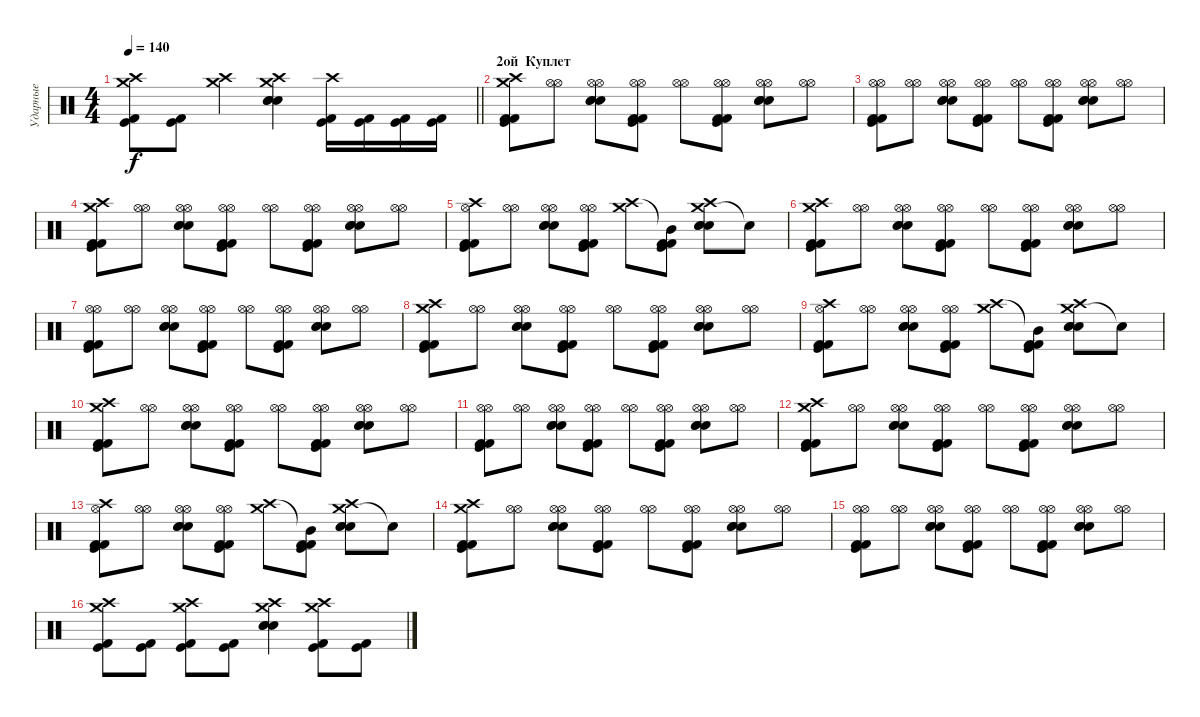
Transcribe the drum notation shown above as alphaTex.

\track ("Ударные" "Ударные") {instrument percussion}
\staff {score}
\articulation defaults
\ts (4 4)
\tempo 140
\clef neutral
\barLineRight lightlight
\ks c
("Crash high (hit)" "Crash medium (hit)" "Kick (hit)" "Kick (hit) 2").8{dy f} ("Kick (hit)" "Kick (hit) 2").8 ("Crash high (hit)" "Crash medium (hit)").4 ("Crash high (hit)" "Crash medium (hit)" "Electric Snare (hit)" "Snare (hit) 2" "Electric Snare (hit)").4 ("Crash high (hit)" "Kick (hit)" "Kick (hit) 2").16 ("Kick (hit)" "Kick (hit) 2").16 ("Kick (hit)" "Kick (hit) 2").16 ("Kick (hit)" "Kick (hit) 2").16 |
\section ("" "2ой  Куплет")
("Crash high (hit)" "Crash medium (hit)" "Kick (hit) 2" "Kick (hit)" "Kick (hit) 2").8 ("Hi-Hat (open)" "Hi-Hat (open)").8 ("Hi-Hat (open)" "Hi-Hat (open)" "Electric Snare (hit)" "Snare (hit) 2" "Electric Snare (hit)").8 ("Hi-Hat (open)" "Hi-Hat (open)" "Kick (hit) 2" "Kick (hit)" "Kick (hit) 2").8 ("Hi-Hat (open)" "Hi-Hat (open)").8 ("Hi-Hat (open)" "Hi-Hat (open)" "Kick (hit) 2" "Kick (hit)" "Kick (hit) 2").8 ("Hi-Hat (open)" "Hi-Hat (open)" "Electric Snare (hit)" "Snare (hit) 2" "Electric Snare (hit)").8 ("Hi-Hat (open)" "Hi-Hat (open)").8 |
("Hi-Hat (open)" "Hi-Hat (open)" "Kick (hit) 2" "Kick (hit)" "Kick (hit) 2").8 ("Hi-Hat (open)" "Hi-Hat (open)").8 ("Hi-Hat (open)" "Hi-Hat (open)" "Electric Snare (hit)" "Snare (hit) 2" "Electric Snare (hit)").8 ("Hi-Hat (open)" "Hi-Hat (open)" "Kick (hit) 2" "Kick (hit)" "Kick (hit) 2").8 ("Hi-Hat (open)" "Hi-Hat (open)").8 ("Hi-Hat (open)" "Hi-Hat (open)" "Kick (hit) 2" "Kick (hit)" "Kick (hit) 2").8 ("Hi-Hat (open)" "Hi-Hat (open)" "Electric Snare (hit)" "Snare (hit) 2" "Electric Snare (hit)").8 ("Hi-Hat (open)" "Hi-Hat (open)").8 |
("Crash high (hit)" "Crash medium (hit)" "Kick (hit) 2" "Kick (hit)" "Kick (hit) 2").8 ("Hi-Hat (open)" "Hi-Hat (open)").8 ("Hi-Hat (open)" "Hi-Hat (open)" "Electric Snare (hit)" "Snare (hit) 2" "Electric Snare (hit)").8 ("Hi-Hat (open)" "Hi-Hat (open)" "Kick (hit) 2" "Kick (hit)" "Kick (hit) 2").8 ("Hi-Hat (open)" "Hi-Hat (open)").8 ("Hi-Hat (open)" "Hi-Hat (open)" "Kick (hit) 2" "Kick (hit)" "Kick (hit) 2").8 ("Hi-Hat (open)" "Hi-Hat (open)" "Electric Snare (hit)" "Snare (hit) 2" "Electric Snare (hit)").8 ("Hi-Hat (open)" "Hi-Hat (open)").8 |
("Crash high (hit)" "Hi-Hat (open)" "Kick (hit) 2" "Kick (hit)" "Kick (hit) 2").8 ("Hi-Hat (open)" "Hi-Hat (open)").8 ("Hi-Hat (open)" "Hi-Hat (open)" "Electric Snare (hit)" "Snare (hit) 2" "Electric Snare (hit)").8 ("Hi-Hat (open)" "Hi-Hat (open)" "Kick (hit) 2" "Kick (hit)" "Kick (hit) 2").8 ("Crash high (hit)" "Crash medium (hit)").8 ("Mid Tom (hit)"{t} "Kick (hit) 2" "Kick (hit)" "Kick (hit) 2").8 ("Crash medium (hit)" "Crash high (hit)" "Electric Snare (hit)" "Snare (hit) 2" "Electric Snare (hit)").8 "Snare (hit)"{t}.8 |
("Crash high (hit)" "Crash medium (hit)" "Kick (hit) 2" "Kick (hit)" "Kick (hit) 2").8 ("Hi-Hat (open)" "Hi-Hat (open)").8 ("Hi-Hat (open)" "Hi-Hat (open)" "Electric Snare (hit)" "Snare (hit) 2" "Electric Snare (hit)").8 ("Hi-Hat (open)" "Hi-Hat (open)" "Kick (hit) 2" "Kick (hit)" "Kick (hit) 2").8 ("Hi-Hat (open)" "Hi-Hat (open)").8 ("Hi-Hat (open)" "Hi-Hat (open)" "Kick (hit) 2" "Kick (hit)" "Kick (hit) 2").8 ("Hi-Hat (open)" "Hi-Hat (open)" "Electric Snare (hit)" "Snare (hit) 2" "Electric Snare (hit)").8 ("Hi-Hat (open)" "Hi-Hat (open)").8 |
("Hi-Hat (open)" "Hi-Hat (open)" "Kick (hit) 2" "Kick (hit)" "Kick (hit) 2").8 ("Hi-Hat (open)" "Hi-Hat (open)").8 ("Hi-Hat (open)" "Hi-Hat (open)" "Electric Snare (hit)" "Snare (hit) 2" "Electric Snare (hit)").8 ("Hi-Hat (open)" "Hi-Hat (open)" "Kick (hit) 2" "Kick (hit)" "Kick (hit) 2").8 ("Hi-Hat (open)" "Hi-Hat (open)").8 ("Hi-Hat (open)" "Hi-Hat (open)" "Kick (hit) 2" "Kick (hit)" "Kick (hit) 2").8 ("Hi-Hat (open)" "Hi-Hat (open)" "Electric Snare (hit)" "Snare (hit) 2" "Electric Snare (hit)").8 ("Hi-Hat (open)" "Hi-Hat (open)").8 |
("Crash high (hit)" "Crash medium (hit)" "Kick (hit) 2" "Kick (hit)" "Kick (hit) 2").8 ("Hi-Hat (open)" "Hi-Hat (open)").8 ("Hi-Hat (open)" "Hi-Hat (open)" "Electric Snare (hit)" "Snare (hit) 2" "Electric Snare (hit)").8 ("Hi-Hat (open)" "Hi-Hat (open)" "Kick (hit) 2" "Kick (hit)" "Kick (hit) 2").8 ("Hi-Hat (open)" "Hi-Hat (open)").8 ("Hi-Hat (open)" "Hi-Hat (open)" "Kick (hit) 2" "Kick (hit)" "Kick (hit) 2").8 ("Hi-Hat (open)" "Hi-Hat (open)" "Electric Snare (hit)" "Snare (hit) 2" "Electric Snare (hit)").8 ("Hi-Hat (open)" "Hi-Hat (open)").8 |
("Crash high (hit)" "Hi-Hat (open)" "Kick (hit) 2" "Kick (hit)" "Kick (hit) 2").8 ("Hi-Hat (open)" "Hi-Hat (open)").8 ("Hi-Hat (open)" "Hi-Hat (open)" "Electric Snare (hit)" "Snare (hit) 2" "Electric Snare (hit)").8 ("Hi-Hat (open)" "Hi-Hat (open)" "Kick (hit) 2" "Kick (hit)" "Kick (hit) 2").8 ("Crash high (hit)" "Crash medium (hit)").8 ("Mid Tom (hit)"{t} "Kick (hit) 2" "Kick (hit)" "Kick (hit) 2").8 ("Crash medium (hit)" "Crash high (hit)" "Electric Snare (hit)" "Snare (hit) 2" "Electric Snare (hit)").8 "Snare (hit)"{t}.8 |
("Crash high (hit)" "Crash medium (hit)" "Kick (hit) 2" "Kick (hit)" "Kick (hit) 2").8 ("Hi-Hat (open)" "Hi-Hat (open)").8 ("Hi-Hat (open)" "Hi-Hat (open)" "Electric Snare (hit)" "Snare (hit) 2" "Electric Snare (hit)").8 ("Hi-Hat (open)" "Hi-Hat (open)" "Kick (hit) 2" "Kick (hit)" "Kick (hit) 2").8 ("Hi-Hat (open)" "Hi-Hat (open)").8 ("Hi-Hat (open)" "Hi-Hat (open)" "Kick (hit) 2" "Kick (hit)" "Kick (hit) 2").8 ("Hi-Hat (open)" "Hi-Hat (open)" "Electric Snare (hit)" "Snare (hit) 2" "Electric Snare (hit)").8 ("Hi-Hat (open)" "Hi-Hat (open)").8 |
("Hi-Hat (open)" "Hi-Hat (open)" "Kick (hit) 2" "Kick (hit)" "Kick (hit) 2").8 ("Hi-Hat (open)" "Hi-Hat (open)").8 ("Hi-Hat (open)" "Hi-Hat (open)" "Electric Snare (hit)" "Snare (hit) 2" "Electric Snare (hit)").8 ("Hi-Hat (open)" "Hi-Hat (open)" "Kick (hit) 2" "Kick (hit)" "Kick (hit) 2").8 ("Hi-Hat (open)" "Hi-Hat (open)").8 ("Hi-Hat (open)" "Hi-Hat (open)" "Kick (hit) 2" "Kick (hit)" "Kick (hit) 2").8 ("Hi-Hat (open)" "Hi-Hat (open)" "Electric Snare (hit)" "Snare (hit) 2" "Electric Snare (hit)").8 ("Hi-Hat (open)" "Hi-Hat (open)").8 |
("Crash high (hit)" "Crash medium (hit)" "Kick (hit) 2" "Kick (hit)" "Kick (hit) 2").8 ("Hi-Hat (open)" "Hi-Hat (open)").8 ("Hi-Hat (open)" "Hi-Hat (open)" "Electric Snare (hit)" "Snare (hit) 2" "Electric Snare (hit)").8 ("Hi-Hat (open)" "Hi-Hat (open)" "Kick (hit) 2" "Kick (hit)" "Kick (hit) 2").8 ("Hi-Hat (open)" "Hi-Hat (open)").8 ("Hi-Hat (open)" "Hi-Hat (open)" "Kick (hit) 2" "Kick (hit)" "Kick (hit) 2").8 ("Hi-Hat (open)" "Hi-Hat (open)" "Electric Snare (hit)" "Snare (hit) 2" "Electric Snare (hit)").8 ("Hi-Hat (open)" "Hi-Hat (open)").8 |
("Crash high (hit)" "Hi-Hat (open)" "Kick (hit) 2" "Kick (hit)" "Kick (hit) 2").8 ("Hi-Hat (open)" "Hi-Hat (open)").8 ("Hi-Hat (open)" "Hi-Hat (open)" "Electric Snare (hit)" "Snare (hit) 2" "Electric Snare (hit)").8 ("Hi-Hat (open)" "Hi-Hat (open)" "Kick (hit) 2" "Kick (hit)" "Kick (hit) 2").8 ("Crash high (hit)" "Crash medium (hit)").8 ("Mid Tom (hit)"{t} "Kick (hit) 2" "Kick (hit)" "Kick (hit) 2").8 ("Crash medium (hit)" "Crash high (hit)" "Electric Snare (hit)" "Snare (hit) 2" "Electric Snare (hit)").8 "Snare (hit)"{t}.8 |
("Crash high (hit)" "Crash medium (hit)" "Kick (hit) 2" "Kick (hit)" "Kick (hit) 2").8 ("Hi-Hat (open)" "Hi-Hat (open)").8 ("Hi-Hat (open)" "Hi-Hat (open)" "Electric Snare (hit)" "Snare (hit) 2" "Electric Snare (hit)").8 ("Hi-Hat (open)" "Hi-Hat (open)" "Kick (hit) 2" "Kick (hit)" "Kick (hit) 2").8 ("Hi-Hat (open)" "Hi-Hat (open)").8 ("Hi-Hat (open)" "Hi-Hat (open)" "Kick (hit) 2" "Kick (hit)" "Kick (hit) 2").8 ("Hi-Hat (open)" "Hi-Hat (open)" "Electric Snare (hit)" "Snare (hit) 2" "Electric Snare (hit)").8 ("Hi-Hat (open)" "Hi-Hat (open)").8 |
("Hi-Hat (open)" "Hi-Hat (open)" "Kick (hit) 2" "Kick (hit)" "Kick (hit) 2").8 ("Hi-Hat (open)" "Hi-Hat (open)").8 ("Hi-Hat (open)" "Hi-Hat (open)" "Electric Snare (hit)" "Snare (hit) 2" "Electric Snare (hit)").8 ("Hi-Hat (open)" "Hi-Hat (open)" "Kick (hit) 2" "Kick (hit)" "Kick (hit) 2").8 ("Hi-Hat (open)" "Hi-Hat (open)").8 ("Hi-Hat (open)" "Hi-Hat (open)" "Kick (hit) 2" "Kick (hit)" "Kick (hit) 2").8 ("Hi-Hat (open)" "Hi-Hat (open)" "Electric Snare (hit)" "Snare (hit) 2" "Electric Snare (hit)").8 ("Hi-Hat (open)" "Hi-Hat (open)").8 |
("Crash high (hit)" "Crash medium (hit)" "Kick (hit)" "Kick (hit) 2").8 ("Kick (hit)" "Kick (hit) 2").8 ("Crash high (hit)" "Crash medium (hit)" "Kick (hit)" "Kick (hit) 2").8 ("Kick (hit)" "Kick (hit) 2").8 ("Crash high (hit)" "Crash medium (hit)" "Snare (hit) 2" "Electric Snare (hit)" "Electric Snare (hit)").4 ("Crash high (hit)" "Crash medium (hit)" "Kick (hit)" "Kick (hit) 2").8 ("Kick (hit)" "Kick (hit) 2").8
